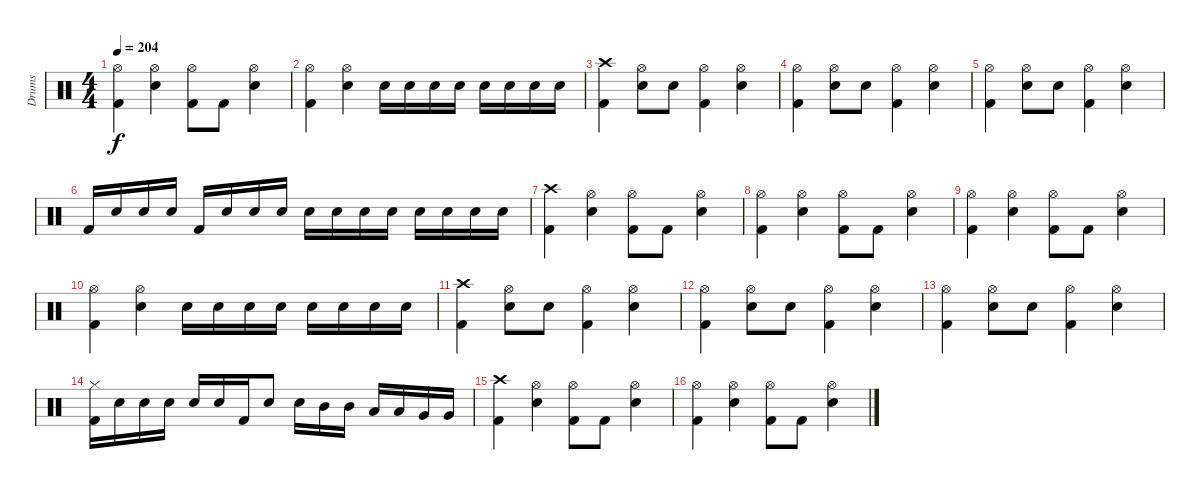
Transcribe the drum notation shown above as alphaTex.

\track ("Drums" "Drums") {instrument percussion}
\staff {score}
\articulation defaults
\ts (4 4)
\tempo 204
\clef neutral
\ks c
("Hi-Hat (open)" "Kick (hit) 2").4{dy f} ("Hi-Hat (open)" "Electric Snare (hit)").4 ("Hi-Hat (open)" "Kick (hit) 2").8 "Kick (hit) 2".8 ("Hi-Hat (open)" "Electric Snare (hit)").4 |
("Hi-Hat (open)" "Kick (hit) 2").4 ("Hi-Hat (open)" "Electric Snare (hit)").4 "Electric Snare (hit)".16 "Electric Snare (hit)".16 "Electric Snare (hit)".16 "Electric Snare (hit)".16 "Electric Snare (hit)".16 "Electric Snare (hit)".16 "Electric Snare (hit)".16 "Electric Snare (hit)".16 |
("Crash high (hit)" "Kick (hit) 2").4 ("Hi-Hat (open)" "Electric Snare (hit)").8 "Electric Snare (hit)".8 ("Hi-Hat (open)" "Kick (hit) 2").4 ("Hi-Hat (open)" "Electric Snare (hit)").4 |
("Hi-Hat (open)" "Kick (hit) 2").4 ("Hi-Hat (open)" "Electric Snare (hit)").8 "Electric Snare (hit)".8 ("Hi-Hat (open)" "Kick (hit) 2").4 ("Hi-Hat (open)" "Electric Snare (hit)").4 |
("Hi-Hat (open)" "Kick (hit) 2").4 ("Hi-Hat (open)" "Electric Snare (hit)").8 "Electric Snare (hit)".8 ("Hi-Hat (open)" "Kick (hit) 2").4 ("Hi-Hat (open)" "Electric Snare (hit)").4 |
"Kick (hit) 2".16 "Electric Snare (hit)".16 "Electric Snare (hit)".16 "Electric Snare (hit)".16 "Kick (hit) 2".16 "Electric Snare (hit)".16 "Electric Snare (hit)".16 "Electric Snare (hit)".16 "Electric Snare (hit)".16 "Electric Snare (hit)".16 "Electric Snare (hit)".16 "Electric Snare (hit)".16 "Electric Snare (hit)".16 "Electric Snare (hit)".16 "Electric Snare (hit)".16 "Electric Snare (hit)".16 |
("Crash high (hit)" "Kick (hit) 2").4 ("Hi-Hat (open)" "Electric Snare (hit)").4 ("Hi-Hat (open)" "Kick (hit) 2").8 "Kick (hit) 2".8 ("Hi-Hat (open)" "Electric Snare (hit)").4 |
("Hi-Hat (open)" "Kick (hit) 2").4 ("Hi-Hat (open)" "Electric Snare (hit)").4 ("Hi-Hat (open)" "Kick (hit) 2").8 "Kick (hit) 2".8 ("Hi-Hat (open)" "Electric Snare (hit)").4 |
("Hi-Hat (open)" "Kick (hit) 2").4 ("Hi-Hat (open)" "Electric Snare (hit)").4 ("Hi-Hat (open)" "Kick (hit) 2").8 "Kick (hit) 2".8 ("Hi-Hat (open)" "Electric Snare (hit)").4 |
("Hi-Hat (open)" "Kick (hit) 2").4 ("Hi-Hat (open)" "Electric Snare (hit)").4 "Electric Snare (hit)".16 "Electric Snare (hit)".16 "Electric Snare (hit)".16 "Electric Snare (hit)".16 "Electric Snare (hit)".16 "Electric Snare (hit)".16 "Electric Snare (hit)".16 "Electric Snare (hit)".16 |
("Crash high (hit)" "Kick (hit) 2").4 ("Hi-Hat (open)" "Electric Snare (hit)").8 "Electric Snare (hit)".8 ("Hi-Hat (open)" "Kick (hit) 2").4 ("Hi-Hat (open)" "Electric Snare (hit)").4 |
("Hi-Hat (open)" "Kick (hit) 2").4 ("Hi-Hat (open)" "Electric Snare (hit)").8 "Electric Snare (hit)".8 ("Hi-Hat (open)" "Kick (hit) 2").4 ("Hi-Hat (open)" "Electric Snare (hit)").4 |
("Hi-Hat (open)" "Kick (hit) 2").4 ("Hi-Hat (open)" "Electric Snare (hit)").8 "Electric Snare (hit)".8 ("Hi-Hat (open)" "Kick (hit) 2").4 ("Hi-Hat (open)" "Electric Snare (hit)").4 |
("Kick (hit) 2" "Hi-Hat (closed)").16 "Electric Snare (hit)".16 "Electric Snare (hit)".16 "Electric Snare (hit)".16 "Electric Snare (hit)".16 "Electric Snare (hit)".16 "Kick (hit) 2".16 "Electric Snare (hit)".8 "Electric Snare (hit)".16 "Mid Tom (hit)".16 "Mid Tom (hit)".16 "Low Tom (hit)".16 "Low Tom (hit)".16 "Very Low Tom (hit)".16 "Very Low Tom (hit)".16 |
("Crash high (hit)" "Kick (hit) 2").4 ("Hi-Hat (open)" "Electric Snare (hit)").4 ("Hi-Hat (open)" "Kick (hit) 2").8 "Kick (hit) 2".8 ("Hi-Hat (open)" "Electric Snare (hit)").4 |
("Hi-Hat (open)" "Kick (hit) 2").4 ("Hi-Hat (open)" "Electric Snare (hit)").4 ("Hi-Hat (open)" "Kick (hit) 2").8 "Kick (hit) 2".8 ("Hi-Hat (open)" "Electric Snare (hit)").4
